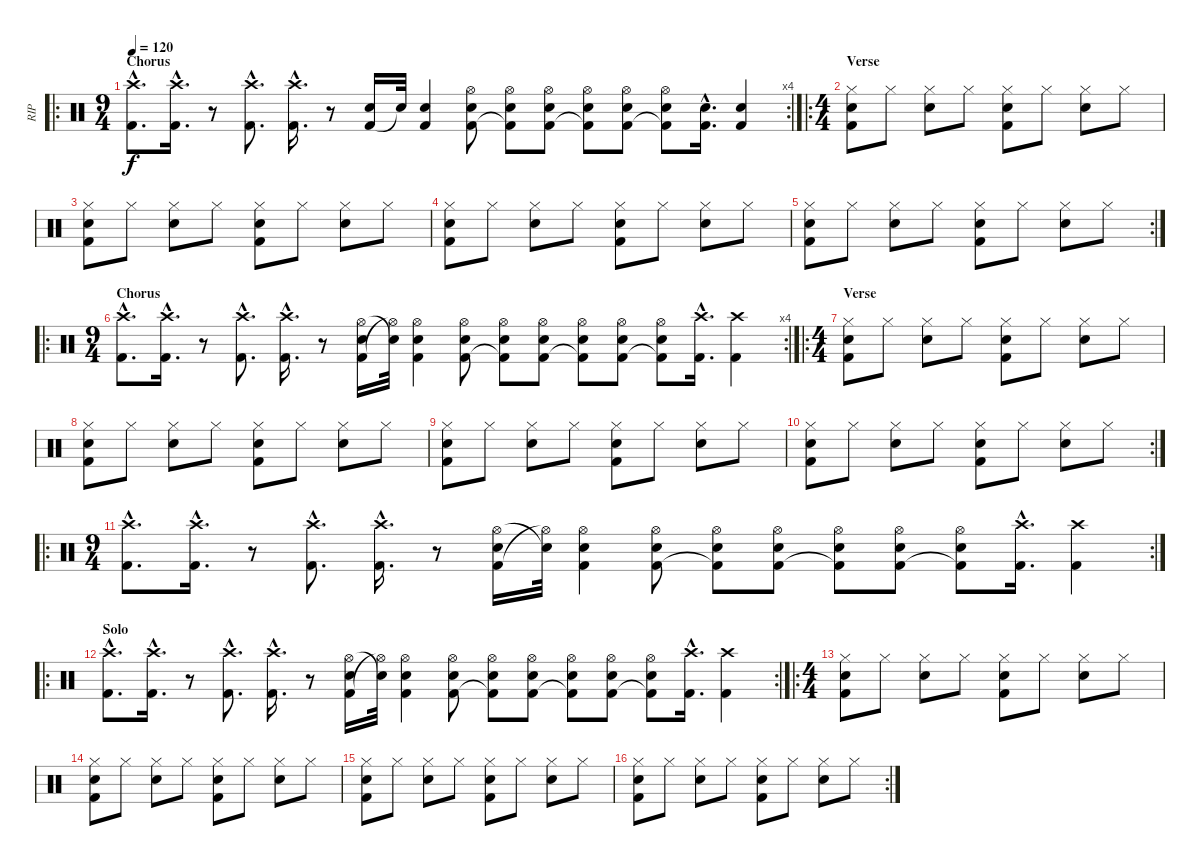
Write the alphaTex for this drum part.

\track ("RIP" "RIP") {instrument percussion}
\staff {score}
\articulation defaults
\ro
\rc 4
\ts (9 4)
\section ("" "Chorus")
\tempo 120
\clef neutral
\ks c
("Crash high (hit)"{hac} "Kick (hit) 2"{hac}).8{d dy f} ("Crash high (hit)"{hac} "Kick (hit) 2"{hac}).16{d} r.8 ("Crash high (hit)"{hac} "Kick (hit) 2"{hac}).8{d} ("Crash high (hit)"{hac} "Kick (hit) 2"{hac}).16{d} r.8 ("Kick (hit) 2" "Electric Snare (hit)").16 "Snare (hit)"{t}.32 ("Kick (hit) 2" "Electric Snare (hit)").4 ("Kick (hit) 2" "Hi-Hat (open)" "Electric Snare (hit)").8 ("Kick (hit) 2"{t} "Hi-Hat (open)" "Snare (hit)").8 ("Kick (hit) 2" "Hi-Hat (open)" "Snare (hit)").8 ("Kick (hit) 2"{t} "Hi-Hat (open)" "Electric Snare (hit)").8 ("Kick (hit) 2" "Hi-Hat (open)" "Snare (hit)").8 ("Kick (hit) 2"{t} "Hi-Hat (open)" "Snare (hit)").8 ("Kick (hit) 2"{hac} "Electric Snare (hit)"{hac}).16{d} ("Kick (hit) 2" "Electric Snare (hit)").4 |
\ro
\ts (4 4)
\section ("" "Verse")
("Electric Snare (hit)" "Hi-Hat (closed)" "Kick (hit) 2").8 "Hi-Hat (closed)".8 ("Electric Snare (hit)" "Hi-Hat (closed)").8 "Hi-Hat (closed)".8 ("Electric Snare (hit)" "Hi-Hat (closed)" "Kick (hit) 2").8 "Hi-Hat (closed)".8 ("Electric Snare (hit)" "Hi-Hat (closed)").8 "Hi-Hat (closed)".8 |
("Electric Snare (hit)" "Hi-Hat (closed)" "Kick (hit) 2").8 "Hi-Hat (closed)".8 ("Electric Snare (hit)" "Hi-Hat (closed)").8 "Hi-Hat (closed)".8 ("Electric Snare (hit)" "Hi-Hat (closed)" "Kick (hit) 2").8 "Hi-Hat (closed)".8 ("Electric Snare (hit)" "Hi-Hat (closed)").8 "Hi-Hat (closed)".8 |
("Electric Snare (hit)" "Hi-Hat (closed)" "Kick (hit) 2").8 "Hi-Hat (closed)".8 ("Electric Snare (hit)" "Hi-Hat (closed)").8 "Hi-Hat (closed)".8 ("Electric Snare (hit)" "Hi-Hat (closed)" "Kick (hit) 2").8 "Hi-Hat (closed)".8 ("Electric Snare (hit)" "Hi-Hat (closed)").8 "Hi-Hat (closed)".8 |
\rc 2
("Electric Snare (hit)" "Hi-Hat (closed)" "Kick (hit) 2").8 "Hi-Hat (closed)".8 ("Electric Snare (hit)" "Hi-Hat (closed)").8 "Hi-Hat (closed)".8 ("Electric Snare (hit)" "Hi-Hat (closed)" "Kick (hit) 2").8 "Hi-Hat (closed)".8 ("Electric Snare (hit)" "Hi-Hat (closed)").8 "Hi-Hat (closed)".8 |
\ro
\rc 4
\ts (9 4)
\section ("" "Chorus")
("Crash high (hit)"{hac} "Kick (hit) 2"{hac}).8{d} ("Crash high (hit)"{hac} "Kick (hit) 2"{hac}).16{d} r.8 ("Crash high (hit)"{hac} "Kick (hit) 2"{hac}).8{d} ("Crash high (hit)"{hac} "Kick (hit) 2"{hac}).16{d} r.8 ("Kick (hit) 2" "Hi-Hat (open)" "Electric Snare (hit)").16 ("Hi-Hat (open)"{t} "Snare (hit)"{t}).32 ("Kick (hit) 2" "Hi-Hat (open)" "Electric Snare (hit)").4 ("Kick (hit) 2" "Hi-Hat (open)" "Electric Snare (hit)").8 ("Kick (hit) 2"{t} "Hi-Hat (open)" "Snare (hit)").8 ("Kick (hit) 2" "Hi-Hat (open)" "Snare (hit)").8 ("Kick (hit) 2"{t} "Hi-Hat (open)" "Electric Snare (hit)").8 ("Kick (hit) 2" "Hi-Hat (open)" "Snare (hit)").8 ("Kick (hit) 2"{t} "Hi-Hat (open)" "Snare (hit)").8 ("Kick (hit) 2"{hac} "Crash high (hit)"{hac}).16{d} ("Kick (hit) 2" "Crash high (hit)").4 |
\ro
\ts (4 4)
\section ("" "Verse")
("Electric Snare (hit)" "Hi-Hat (closed)" "Kick (hit) 2").8 "Hi-Hat (closed)".8 ("Electric Snare (hit)" "Hi-Hat (closed)").8 "Hi-Hat (closed)".8 ("Electric Snare (hit)" "Hi-Hat (closed)" "Kick (hit) 2").8 "Hi-Hat (closed)".8 ("Electric Snare (hit)" "Hi-Hat (closed)").8 "Hi-Hat (closed)".8 |
("Electric Snare (hit)" "Hi-Hat (closed)" "Kick (hit) 2").8 "Hi-Hat (closed)".8 ("Electric Snare (hit)" "Hi-Hat (closed)").8 "Hi-Hat (closed)".8 ("Electric Snare (hit)" "Hi-Hat (closed)" "Kick (hit) 2").8 "Hi-Hat (closed)".8 ("Electric Snare (hit)" "Hi-Hat (closed)").8 "Hi-Hat (closed)".8 |
("Electric Snare (hit)" "Hi-Hat (closed)" "Kick (hit) 2").8 "Hi-Hat (closed)".8 ("Electric Snare (hit)" "Hi-Hat (closed)").8 "Hi-Hat (closed)".8 ("Electric Snare (hit)" "Hi-Hat (closed)" "Kick (hit) 2").8 "Hi-Hat (closed)".8 ("Electric Snare (hit)" "Hi-Hat (closed)").8 "Hi-Hat (closed)".8 |
\rc 2
("Electric Snare (hit)" "Hi-Hat (closed)" "Kick (hit) 2").8 "Hi-Hat (closed)".8 ("Electric Snare (hit)" "Hi-Hat (closed)").8 "Hi-Hat (closed)".8 ("Electric Snare (hit)" "Hi-Hat (closed)" "Kick (hit) 2").8 "Hi-Hat (closed)".8 ("Electric Snare (hit)" "Hi-Hat (closed)").8 "Hi-Hat (closed)".8 |
\ro
\rc 2
\ts (9 4)
("Crash high (hit)"{hac} "Kick (hit) 2"{hac}).8{d} ("Crash high (hit)"{hac} "Kick (hit) 2"{hac}).16{d} r.8 ("Crash high (hit)"{hac} "Kick (hit) 2"{hac}).8{d} ("Crash high (hit)"{hac} "Kick (hit) 2"{hac}).16{d} r.8 ("Kick (hit) 2" "Hi-Hat (open)" "Electric Snare (hit)").16 ("Hi-Hat (open)"{t} "Snare (hit)"{t}).32 ("Kick (hit) 2" "Hi-Hat (open)" "Electric Snare (hit)").4 ("Kick (hit) 2" "Hi-Hat (open)" "Electric Snare (hit)").8 ("Kick (hit) 2"{t} "Hi-Hat (open)" "Snare (hit)").8 ("Kick (hit) 2" "Hi-Hat (open)" "Snare (hit)").8 ("Kick (hit) 2"{t} "Hi-Hat (open)" "Electric Snare (hit)").8 ("Kick (hit) 2" "Hi-Hat (open)" "Snare (hit)").8 ("Kick (hit) 2"{t} "Hi-Hat (open)" "Snare (hit)").8 ("Kick (hit) 2"{hac} "Crash high (hit)"{hac}).16{d} ("Kick (hit) 2" "Crash high (hit)").4 |
\ro
\rc 2
\section ("" "Solo")
("Crash high (hit)"{hac} "Kick (hit) 2"{hac}).8{d} ("Crash high (hit)"{hac} "Kick (hit) 2"{hac}).16{d} r.8 ("Crash high (hit)"{hac} "Kick (hit) 2"{hac}).8{d} ("Crash high (hit)"{hac} "Kick (hit) 2"{hac}).16{d} r.8 ("Kick (hit) 2" "Hi-Hat (open)" "Electric Snare (hit)").16 ("Hi-Hat (open)"{t} "Snare (hit)"{t}).32 ("Kick (hit) 2" "Hi-Hat (open)" "Electric Snare (hit)").4 ("Kick (hit) 2" "Hi-Hat (open)" "Electric Snare (hit)").8 ("Kick (hit) 2"{t} "Hi-Hat (open)" "Snare (hit)").8 ("Kick (hit) 2" "Hi-Hat (open)" "Snare (hit)").8 ("Kick (hit) 2"{t} "Hi-Hat (open)" "Electric Snare (hit)").8 ("Kick (hit) 2" "Hi-Hat (open)" "Snare (hit)").8 ("Kick (hit) 2"{t} "Hi-Hat (open)" "Snare (hit)").8 ("Kick (hit) 2"{hac} "Crash high (hit)"{hac}).16{d} ("Kick (hit) 2" "Crash high (hit)").4 |
\ro
\ts (4 4)
("Electric Snare (hit)" "Hi-Hat (closed)" "Kick (hit) 2").8 "Hi-Hat (closed)".8 ("Electric Snare (hit)" "Hi-Hat (closed)").8 "Hi-Hat (closed)".8 ("Electric Snare (hit)" "Hi-Hat (closed)" "Kick (hit) 2").8 "Hi-Hat (closed)".8 ("Electric Snare (hit)" "Hi-Hat (closed)").8 "Hi-Hat (closed)".8 |
("Electric Snare (hit)" "Hi-Hat (closed)" "Kick (hit) 2").8 "Hi-Hat (closed)".8 ("Electric Snare (hit)" "Hi-Hat (closed)").8 "Hi-Hat (closed)".8 ("Electric Snare (hit)" "Hi-Hat (closed)" "Kick (hit) 2").8 "Hi-Hat (closed)".8 ("Electric Snare (hit)" "Hi-Hat (closed)").8 "Hi-Hat (closed)".8 |
("Electric Snare (hit)" "Hi-Hat (closed)" "Kick (hit) 2").8 "Hi-Hat (closed)".8 ("Electric Snare (hit)" "Hi-Hat (closed)").8 "Hi-Hat (closed)".8 ("Electric Snare (hit)" "Hi-Hat (closed)" "Kick (hit) 2").8 "Hi-Hat (closed)".8 ("Electric Snare (hit)" "Hi-Hat (closed)").8 "Hi-Hat (closed)".8 |
\rc 2
("Electric Snare (hit)" "Hi-Hat (closed)" "Kick (hit) 2").8 "Hi-Hat (closed)".8 ("Electric Snare (hit)" "Hi-Hat (closed)").8 "Hi-Hat (closed)".8 ("Electric Snare (hit)" "Hi-Hat (closed)" "Kick (hit) 2").8 "Hi-Hat (closed)".8 ("Electric Snare (hit)" "Hi-Hat (closed)").8 "Hi-Hat (closed)".8
